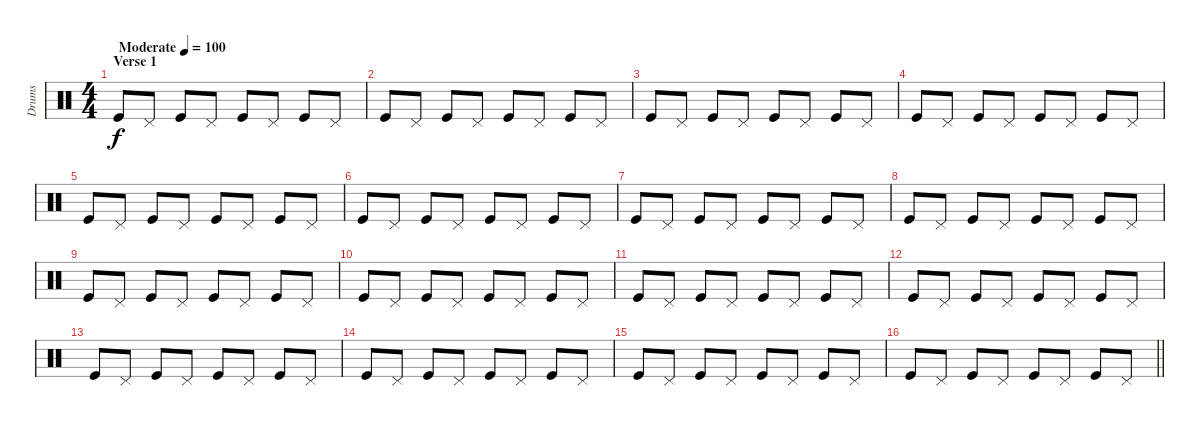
\track ("Drums" "Drums") {instrument percussion}
\staff {score}
\articulation defaults
\ts (4 4)
\section ("" "Verse 1")
\tempo (100 "Moderate")
\clef neutral
\ks c "Kick (hit)".8{dy f} "Pedal Hi-Hat (hit)".8 "Kick (hit)".8 "Pedal Hi-Hat (hit)".8 "Kick (hit)".8 "Pedal Hi-Hat (hit)".8 "Kick (hit)".8 "Pedal Hi-Hat (hit)".8
|
"Kick (hit)".8 "Pedal Hi-Hat (hit)".8 "Kick (hit)".8 "Pedal Hi-Hat (hit)".8 "Kick (hit)".8 "Pedal Hi-Hat (hit)".8 "Kick (hit)".8 "Pedal Hi-Hat (hit)".8 |
"Kick (hit)".8 "Pedal Hi-Hat (hit)".8 "Kick (hit)".8 "Pedal Hi-Hat (hit)".8 "Kick (hit)".8 "Pedal Hi-Hat (hit)".8 "Kick (hit)".8 "Pedal Hi-Hat (hit)".8 |
"Kick (hit)".8 "Pedal Hi-Hat (hit)".8 "Kick (hit)".8 "Pedal Hi-Hat (hit)".8 "Kick (hit)".8 "Pedal Hi-Hat (hit)".8 "Kick (hit)".8 "Pedal Hi-Hat (hit)".8 |
"Kick (hit)".8 "Pedal Hi-Hat (hit)".8 "Kick (hit)".8 "Pedal Hi-Hat (hit)".8 "Kick (hit)".8 "Pedal Hi-Hat (hit)".8 "Kick (hit)".8 "Pedal Hi-Hat (hit)".8 |
"Kick (hit)".8 "Pedal Hi-Hat (hit)".8 "Kick (hit)".8 "Pedal Hi-Hat (hit)".8 "Kick (hit)".8 "Pedal Hi-Hat (hit)".8 "Kick (hit)".8 "Pedal Hi-Hat (hit)".8 |
"Kick (hit)".8 "Pedal Hi-Hat (hit)".8 "Kick (hit)".8 "Pedal Hi-Hat (hit)".8 "Kick (hit)".8 "Pedal Hi-Hat (hit)".8 "Kick (hit)".8 "Pedal Hi-Hat (hit)".8 |
"Kick (hit)".8 "Pedal Hi-Hat (hit)".8 "Kick (hit)".8 "Pedal Hi-Hat (hit)".8 "Kick (hit)".8 "Pedal Hi-Hat (hit)".8 "Kick (hit)".8 "Pedal Hi-Hat (hit)".8 |
"Kick (hit)".8 "Pedal Hi-Hat (hit)".8 "Kick (hit)".8 "Pedal Hi-Hat (hit)".8 "Kick (hit)".8 "Pedal Hi-Hat (hit)".8 "Kick (hit)".8 "Pedal Hi-Hat (hit)".8 |
"Kick (hit)".8 "Pedal Hi-Hat (hit)".8 "Kick (hit)".8 "Pedal Hi-Hat (hit)".8 "Kick (hit)".8 "Pedal Hi-Hat (hit)".8 "Kick (hit)".8 "Pedal Hi-Hat (hit)".8 |
"Kick (hit)".8 "Pedal Hi-Hat (hit)".8 "Kick (hit)".8 "Pedal Hi-Hat (hit)".8 "Kick (hit)".8 "Pedal Hi-Hat (hit)".8 "Kick (hit)".8 "Pedal Hi-Hat (hit)".8 |
"Kick (hit)".8 "Pedal Hi-Hat (hit)".8 "Kick (hit)".8 "Pedal Hi-Hat (hit)".8 "Kick (hit)".8 "Pedal Hi-Hat (hit)".8 "Kick (hit)".8 "Pedal Hi-Hat (hit)".8 |
"Kick (hit)".8 "Pedal Hi-Hat (hit)".8 "Kick (hit)".8 "Pedal Hi-Hat (hit)".8 "Kick (hit)".8 "Pedal Hi-Hat (hit)".8 "Kick (hit)".8 "Pedal Hi-Hat (hit)".8 |
"Kick (hit)".8 "Pedal Hi-Hat (hit)".8 "Kick (hit)".8 "Pedal Hi-Hat (hit)".8 "Kick (hit)".8 "Pedal Hi-Hat (hit)".8 "Kick (hit)".8 "Pedal Hi-Hat (hit)".8 |
"Kick (hit)".8 "Pedal Hi-Hat (hit)".8 "Kick (hit)".8 "Pedal Hi-Hat (hit)".8 "Kick (hit)".8 "Pedal Hi-Hat (hit)".8 "Kick (hit)".8 "Pedal Hi-Hat (hit)".8 |
\barLineRight lightlight "Kick (hit)".8 "Pedal Hi-Hat (hit)".8 "Kick (hit)".8 "Pedal Hi-Hat (hit)".8 "Kick (hit)".8 "Pedal Hi-Hat (hit)".8 "Kick (hit)".8 "Pedal Hi-Hat (hit)".8
